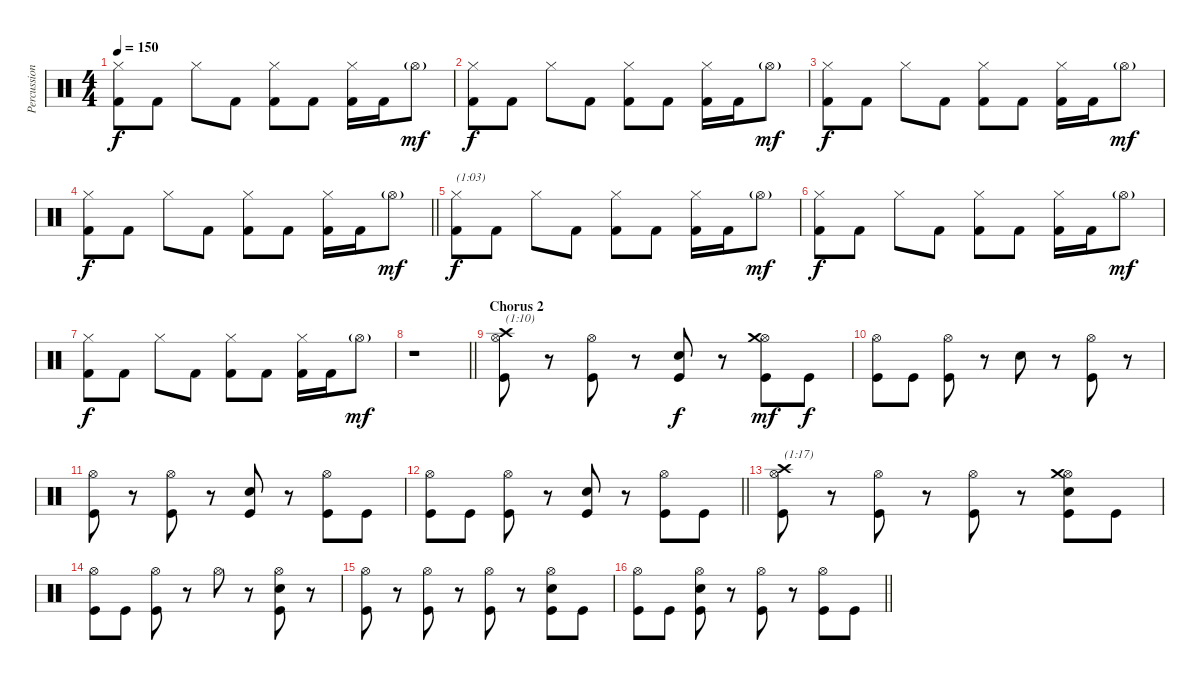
\track ("Percussion" "Percussion") {instrument percussion}
\staff {score}
\articulation defaults
\ts (4 4)
\tempo 150
\clef neutral
\ks c
("Hi-Hat (closed)" "Kick (hit) 2").8{dy f} "Kick (hit) 2".8 "Hi-Hat (closed)".8 "Kick (hit) 2".8 ("Hi-Hat (closed)" "Kick (hit) 2").8 "Kick (hit) 2".8 ("Hi-Hat (closed)" "Kick (hit) 2").16 "Kick (hit) 2".16 "Hi-Hat (open)"{g}.8{dy mf} |
("Hi-Hat (closed)" "Kick (hit) 2").8{dy f} "Kick (hit) 2".8 "Hi-Hat (closed)".8 "Kick (hit) 2".8 ("Hi-Hat (closed)" "Kick (hit) 2").8 "Kick (hit) 2".8 ("Hi-Hat (closed)" "Kick (hit) 2").16 "Kick (hit) 2".16 "Hi-Hat (open)"{g}.8{dy mf} |
("Hi-Hat (closed)" "Kick (hit) 2").8{dy f} "Kick (hit) 2".8 "Hi-Hat (closed)".8 "Kick (hit) 2".8 ("Hi-Hat (closed)" "Kick (hit) 2").8 "Kick (hit) 2".8 ("Hi-Hat (closed)" "Kick (hit) 2").16 "Kick (hit) 2".16 "Hi-Hat (open)"{g}.8{dy mf} |
\barLineRight lightlight
("Hi-Hat (closed)" "Kick (hit) 2").8{dy f} "Kick (hit) 2".8 "Hi-Hat (closed)".8 "Kick (hit) 2".8 ("Hi-Hat (closed)" "Kick (hit) 2").8 "Kick (hit) 2".8 ("Hi-Hat (closed)" "Kick (hit) 2").16 "Kick (hit) 2".16 "Hi-Hat (open)"{g}.8{dy mf} |
("Hi-Hat (closed)" "Kick (hit) 2").8{txt "(1:03)" dy f} "Kick (hit) 2".8 "Hi-Hat (closed)".8 "Kick (hit) 2".8 ("Hi-Hat (closed)" "Kick (hit) 2").8 "Kick (hit) 2".8 ("Hi-Hat (closed)" "Kick (hit) 2").16 "Kick (hit) 2".16 "Hi-Hat (open)"{g}.8{dy mf} |
("Hi-Hat (closed)" "Kick (hit) 2").8{dy f} "Kick (hit) 2".8 "Hi-Hat (closed)".8 "Kick (hit) 2".8 ("Hi-Hat (closed)" "Kick (hit) 2").8 "Kick (hit) 2".8 ("Hi-Hat (closed)" "Kick (hit) 2").16 "Kick (hit) 2".16 "Hi-Hat (open)"{g}.8{dy mf} |
("Hi-Hat (closed)" "Kick (hit) 2").8{dy f} "Kick (hit) 2".8 "Hi-Hat (closed)".8 "Kick (hit) 2".8 ("Hi-Hat (closed)" "Kick (hit) 2").8 "Kick (hit) 2".8 ("Hi-Hat (closed)" "Kick (hit) 2").16 "Kick (hit) 2".16 "Hi-Hat (open)"{g}.8{dy mf} |
\barLineRight lightlight
r.1 |
\section ("" "Chorus 2")
("Hi-Hat (open)" "Crash high (hit)" "Kick (hit)").8{txt "(1:10)" volume 16} r.8 ("Hi-Hat (open)" "Kick (hit)").8 r.8 ("Snare (hit) 2" "Kick (hit)").8{dy f} r.8 ("Hi-Hat (open)" "Crash medium (hit)" "Kick (hit)").8{dy mf} "Kick (hit)".8{dy f} |
("Hi-Hat (open)" "Kick (hit)").8 "Kick (hit)".8 ("Hi-Hat (open)" "Kick (hit)").8 r.8 "Snare (hit) 2".8 r.8 ("Hi-Hat (open)" "Kick (hit)").8 r.8 |
("Hi-Hat (open)" "Kick (hit)").8 r.8 ("Hi-Hat (open)" "Kick (hit)").8 r.8 ("Snare (hit) 2" "Kick (hit)").8 r.8 ("Hi-Hat (open)" "Kick (hit)").8 "Kick (hit)".8 |
\barLineRight lightlight
("Hi-Hat (open)" "Kick (hit)").8 "Kick (hit)".8 ("Hi-Hat (open)" "Kick (hit)").8 r.8 ("Snare (hit) 2" "Kick (hit)").8 r.8 ("Hi-Hat (open)" "Kick (hit)").8 "Kick (hit)".8 |
("Hi-Hat (open)" "Crash high (hit)" "Kick (hit)").8{txt "(1:17)"} r.8 ("Hi-Hat (open)" "Kick (hit)").8 r.8 ("Hi-Hat (open)" "Kick (hit)").8 r.8 ("Hi-Hat (open)" "Crash medium (hit)" "Snare (hit) 2" "Kick (hit)").8 "Kick (hit)".8 |
("Hi-Hat (open)" "Kick (hit)").8 "Kick (hit)".8 ("Hi-Hat (open)" "Kick (hit)").8 r.8 "Hi-Hat (open)".8 r.8 ("Hi-Hat (open)" "Snare (hit) 2" "Kick (hit)").8 r.8 |
("Hi-Hat (open)" "Kick (hit)").8 r.8 ("Hi-Hat (open)" "Kick (hit)").8 r.8 ("Hi-Hat (open)" "Kick (hit)").8 r.8 ("Hi-Hat (open)" "Snare (hit) 2" "Kick (hit)").8 "Kick (hit)".8 |
\barLineRight lightlight
("Hi-Hat (open)" "Kick (hit)").8 "Kick (hit)".8 ("Hi-Hat (open)" "Snare (hit) 2" "Kick (hit)").8 r.8 ("Hi-Hat (open)" "Kick (hit)").8 r.8 ("Hi-Hat (open)" "Kick (hit)").8 "Kick (hit)".8
